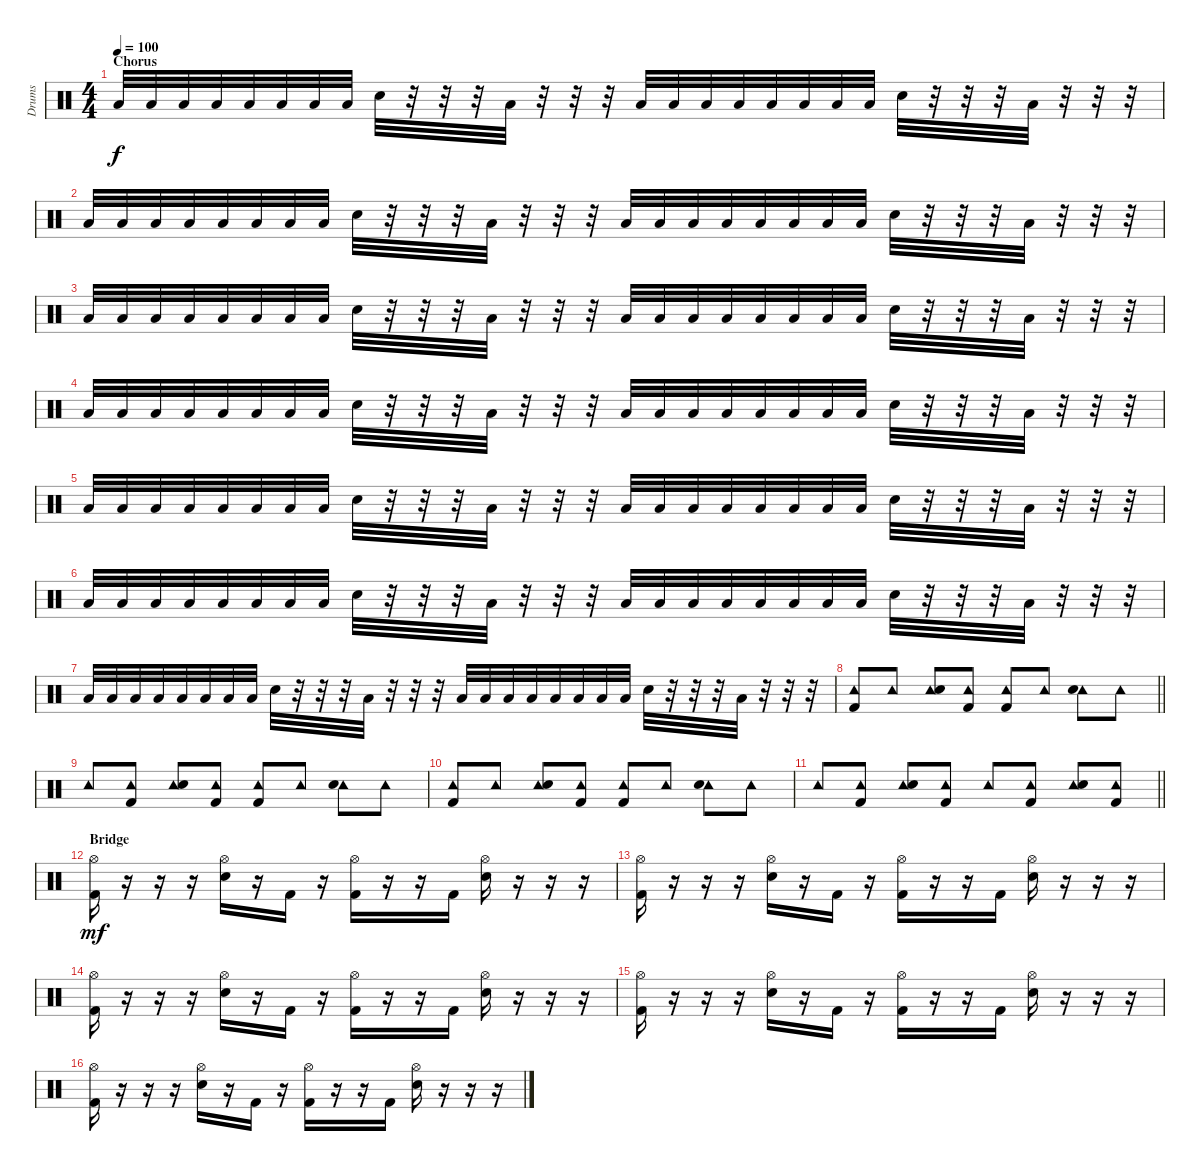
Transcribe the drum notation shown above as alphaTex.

\track ("Drums" "Drums") {instrument percussion}
\staff {score}
\articulation defaults
\ts (4 4)
\section ("" "Chorus")
\tempo 100
\clef neutral
\ks c "Low Tom (hit)".32{dy f} "Low Tom (hit)".32 "Low Tom (hit)".32 "Low Tom (hit)".32 "Low Tom (hit)".32 "Low Tom (hit)".32 "Low Tom (hit)".32 "Low Tom (hit)".32 "Snare (hit) 2".32
r.32 r.32 r.32 "Low Tom (hit)".32 r.32 r.32 r.32 "Low Tom (hit)".32 "Low Tom (hit)".32 "Low Tom (hit)".32 "Low Tom (hit)".32 "Low Tom (hit)".32 "Low Tom (hit)".32 "Low Tom (hit)".32 "Low Tom (hit)".32 "Snare (hit) 2".32 r.32 r.32 r.32 "Low Tom (hit)".32 r.32 r.32 r.32 |
"Low Tom (hit)".32 "Low Tom (hit)".32 "Low Tom (hit)".32 "Low Tom (hit)".32 "Low Tom (hit)".32 "Low Tom (hit)".32 "Low Tom (hit)".32 "Low Tom (hit)".32 "Snare (hit) 2".32 r.32 r.32 r.32 "Low Tom (hit)".32 r.32 r.32 r.32 "Low Tom (hit)".32 "Low Tom (hit)".32 "Low Tom (hit)".32 "Low Tom (hit)".32 "Low Tom (hit)".32 "Low Tom (hit)".32 "Low Tom (hit)".32 "Low Tom (hit)".32 "Snare (hit) 2".32 r.32 r.32 r.32 "Low Tom (hit)".32 r.32 r.32 r.32 |
"Low Tom (hit)".32 "Low Tom (hit)".32 "Low Tom (hit)".32 "Low Tom (hit)".32 "Low Tom (hit)".32 "Low Tom (hit)".32 "Low Tom (hit)".32 "Low Tom (hit)".32 "Snare (hit) 2".32 r.32 r.32 r.32 "Low Tom (hit)".32 r.32 r.32 r.32 "Low Tom (hit)".32 "Low Tom (hit)".32 "Low Tom (hit)".32 "Low Tom (hit)".32 "Low Tom (hit)".32 "Low Tom (hit)".32 "Low Tom (hit)".32 "Low Tom (hit)".32 "Snare (hit) 2".32 r.32 r.32 r.32 "Low Tom (hit)".32 r.32 r.32 r.32 |
"Low Tom (hit)".32 "Low Tom (hit)".32 "Low Tom (hit)".32 "Low Tom (hit)".32 "Low Tom (hit)".32 "Low Tom (hit)".32 "Low Tom (hit)".32 "Low Tom (hit)".32 "Snare (hit) 2".32 r.32 r.32 r.32 "Low Tom (hit)".32 r.32 r.32 r.32 "Low Tom (hit)".32 "Low Tom (hit)".32 "Low Tom (hit)".32 "Low Tom (hit)".32 "Low Tom (hit)".32 "Low Tom (hit)".32 "Low Tom (hit)".32 "Low Tom (hit)".32 "Snare (hit) 2".32 r.32 r.32 r.32 "Low Tom (hit)".32 r.32 r.32 r.32 |
"Low Tom (hit)".32 "Low Tom (hit)".32 "Low Tom (hit)".32 "Low Tom (hit)".32 "Low Tom (hit)".32 "Low Tom (hit)".32 "Low Tom (hit)".32 "Low Tom (hit)".32 "Snare (hit) 2".32 r.32 r.32 r.32 "Low Tom (hit)".32 r.32 r.32 r.32 "Low Tom (hit)".32 "Low Tom (hit)".32 "Low Tom (hit)".32 "Low Tom (hit)".32 "Low Tom (hit)".32 "Low Tom (hit)".32 "Low Tom (hit)".32 "Low Tom (hit)".32 "Snare (hit) 2".32 r.32 r.32 r.32 "Low Tom (hit)".32 r.32 r.32 r.32 |
"Low Tom (hit)".32 "Low Tom (hit)".32 "Low Tom (hit)".32 "Low Tom (hit)".32 "Low Tom (hit)".32 "Low Tom (hit)".32 "Low Tom (hit)".32 "Low Tom (hit)".32 "Snare (hit) 2".32 r.32 r.32 r.32 "Low Tom (hit)".32 r.32 r.32 r.32 "Low Tom (hit)".32 "Low Tom (hit)".32 "Low Tom (hit)".32 "Low Tom (hit)".32 "Low Tom (hit)".32 "Low Tom (hit)".32 "Low Tom (hit)".32 "Low Tom (hit)".32 "Snare (hit) 2".32 r.32 r.32 r.32 "Low Tom (hit)".32 r.32 r.32 r.32 |
"Low Tom (hit)".32 "Low Tom (hit)".32 "Low Tom (hit)".32 "Low Tom (hit)".32 "Low Tom (hit)".32 "Low Tom (hit)".32 "Low Tom (hit)".32 "Low Tom (hit)".32 "Snare (hit) 2".32 r.32 r.32 r.32 "Low Tom (hit)".32 r.32 r.32 r.32 "Low Tom (hit)".32 "Low Tom (hit)".32 "Low Tom (hit)".32 "Low Tom (hit)".32 "Low Tom (hit)".32 "Low Tom (hit)".32 "Low Tom (hit)".32 "Low Tom (hit)".32 "Snare (hit) 2".32 r.32 r.32 r.32 "Low Tom (hit)".32 r.32 r.32 r.32 |
\barLineRight lightlight
("Tambourine (hit)" "Kick (hit) 2").8 "Tambourine (hit)".8 ("Tambourine (hit)" "Snare (hit) 2").8 ("Tambourine (hit)" "Kick (hit) 2").8 ("Tambourine (hit)" "Kick (hit) 2").8 "Tambourine (hit)".8 ("Tambourine (hit)" "Snare (hit) 2").8 "Tambourine (hit)".8 |
"Tambourine (hit)".8 ("Tambourine (hit)" "Kick (hit) 2").8 ("Tambourine (hit)" "Snare (hit) 2").8 ("Tambourine (hit)" "Kick (hit) 2").8 ("Tambourine (hit)" "Kick (hit) 2").8 "Tambourine (hit)".8 ("Tambourine (hit)" "Snare (hit) 2").8 "Tambourine (hit)".8 |
("Tambourine (hit)" "Kick (hit) 2").8 "Tambourine (hit)".8 ("Tambourine (hit)" "Snare (hit) 2").8 ("Tambourine (hit)" "Kick (hit) 2").8 ("Tambourine (hit)" "Kick (hit) 2").8 "Tambourine (hit)".8 ("Tambourine (hit)" "Snare (hit) 2").8 "Tambourine (hit)".8 |
\barLineRight lightlight "Tambourine (hit)".8
("Tambourine (hit)" "Kick (hit) 2").8 ("Tambourine (hit)" "Snare (hit) 2").8 ("Tambourine (hit)" "Kick (hit) 2").8 "Tambourine (hit)".8 ("Tambourine (hit)" "Kick (hit) 2").8 ("Tambourine (hit)" "Snare (hit) 2").8 ("Tambourine (hit)" "Kick (hit) 2").8 |
\section ("" "Bridge")
("Hi-Hat (open)" "Kick (hit) 2").16{dy mf} r.16 r.16 r.16 ("Hi-Hat (open)" "Snare (hit) 2").16 r.16 "Kick (hit) 2".16 r.16 ("Hi-Hat (open)" "Kick (hit) 2").16 r.16 r.16 "Kick (hit) 2".16 ("Hi-Hat (open)" "Snare (hit) 2").16 r.16 r.16 r.16 |
("Hi-Hat (open)" "Kick (hit) 2").16 r.16 r.16 r.16 ("Hi-Hat (open)" "Snare (hit) 2").16 r.16 "Kick (hit) 2".16 r.16 ("Hi-Hat (open)" "Kick (hit) 2").16 r.16 r.16 "Kick (hit) 2".16 ("Hi-Hat (open)" "Snare (hit) 2").16 r.16 r.16 r.16 |
("Hi-Hat (open)" "Kick (hit) 2").16 r.16 r.16 r.16 ("Hi-Hat (open)" "Snare (hit) 2").16 r.16 "Kick (hit) 2".16 r.16 ("Hi-Hat (open)" "Kick (hit) 2").16 r.16 r.16 "Kick (hit) 2".16 ("Hi-Hat (open)" "Snare (hit) 2").16 r.16 r.16 r.16 |
("Hi-Hat (open)" "Kick (hit) 2").16 r.16 r.16 r.16 ("Hi-Hat (open)" "Snare (hit) 2").16 r.16 "Kick (hit) 2".16 r.16 ("Hi-Hat (open)" "Kick (hit) 2").16 r.16 r.16 "Kick (hit) 2".16 ("Hi-Hat (open)" "Snare (hit) 2").16 r.16 r.16 r.16 |
("Hi-Hat (open)" "Kick (hit) 2").16 r.16 r.16 r.16 ("Hi-Hat (open)" "Snare (hit) 2").16 r.16 "Kick (hit) 2".16 r.16 ("Hi-Hat (open)" "Kick (hit) 2").16 r.16 r.16 "Kick (hit) 2".16 ("Hi-Hat (open)" "Snare (hit) 2").16 r.16 r.16 r.16
